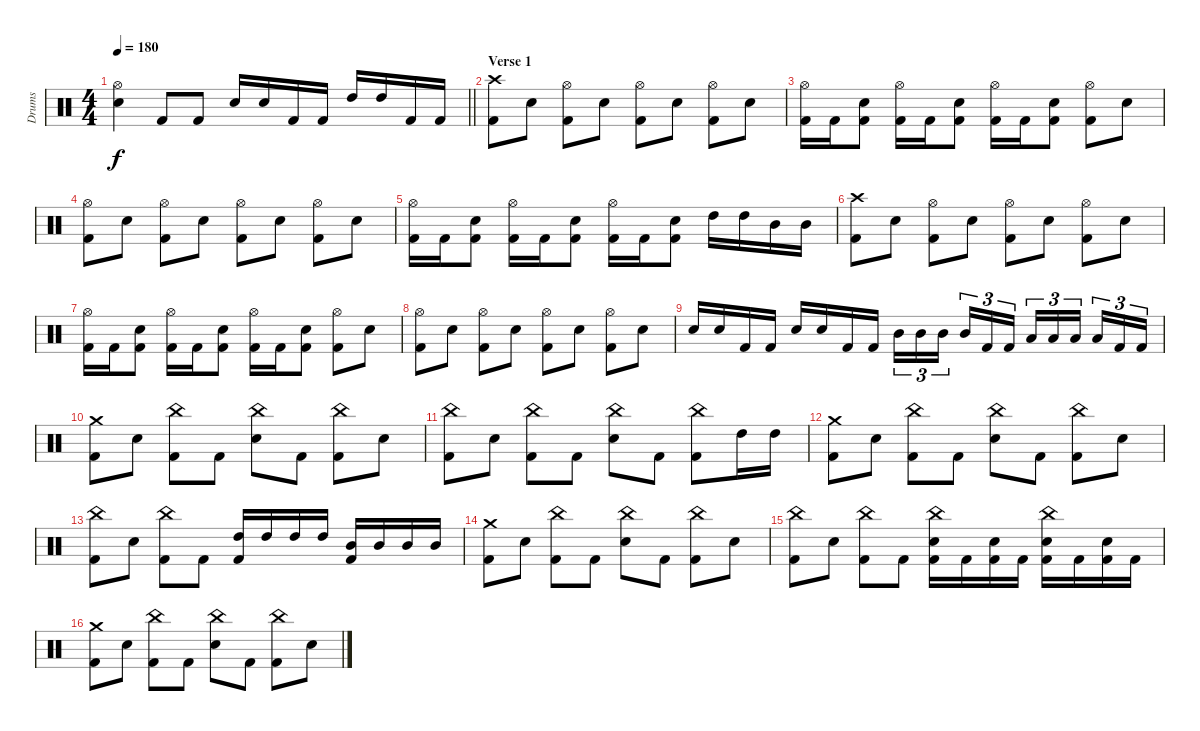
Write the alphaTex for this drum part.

\track ("Drums" "Drums") {instrument percussion}
\staff {score}
\articulation defaults
\ts (4 4)
\tempo 180
\clef neutral
\barLineRight lightlight
\ks c
("Hi-Hat (open)" "Snare (hit) 2").4{dy f} "Kick (hit) 2".8 "Kick (hit) 2".8 "Snare (hit) 2".16 "Snare (hit) 2".16 "Kick (hit) 2".16 "Kick (hit) 2".16 "High Tom (hit)".16 "High Tom (hit)".16 "Kick (hit) 2".16 "Kick (hit) 2".16 |
\section ("" "Verse 1")
("Crash high (hit)" "Kick (hit) 2").8 "Snare (hit) 2".8 ("Hi-Hat (open)" "Kick (hit) 2").8 "Snare (hit) 2".8 ("Hi-Hat (open)" "Kick (hit) 2").8 "Snare (hit) 2".8 ("Hi-Hat (open)" "Kick (hit) 2").8 "Snare (hit) 2".8 |
("Hi-Hat (open)" "Kick (hit) 2").16 "Kick (hit) 2".16 ("Snare (hit) 2" "Kick (hit) 2").8 ("Hi-Hat (open)" "Kick (hit) 2").16 "Kick (hit) 2".16 ("Snare (hit) 2" "Kick (hit) 2").8 ("Hi-Hat (open)" "Kick (hit) 2").16 "Kick (hit) 2".16 ("Snare (hit) 2" "Kick (hit) 2").8 ("Hi-Hat (open)" "Kick (hit) 2").8 "Snare (hit) 2".8 |
("Hi-Hat (open)" "Kick (hit) 2").8 "Snare (hit) 2".8 ("Hi-Hat (open)" "Kick (hit) 2").8 "Snare (hit) 2".8 ("Hi-Hat (open)" "Kick (hit) 2").8 "Snare (hit) 2".8 ("Hi-Hat (open)" "Kick (hit) 2").8 "Snare (hit) 2".8 |
("Hi-Hat (open)" "Kick (hit) 2").16 "Kick (hit) 2".16 ("Snare (hit) 2" "Kick (hit) 2").8 ("Hi-Hat (open)" "Kick (hit) 2").16 "Kick (hit) 2".16 ("Snare (hit) 2" "Kick (hit) 2").8 ("Hi-Hat (open)" "Kick (hit) 2").16 "Kick (hit) 2".16 ("Snare (hit) 2" "Kick (hit) 2").8 "High Tom (hit)".16 "High Tom (hit)".16 "Mid Tom (hit)".16 "Mid Tom (hit)".16 |
("Crash high (hit)" "Kick (hit) 2").8 "Snare (hit) 2".8 ("Hi-Hat (open)" "Kick (hit) 2").8 "Snare (hit) 2".8 ("Hi-Hat (open)" "Kick (hit) 2").8 "Snare (hit) 2".8 ("Hi-Hat (open)" "Kick (hit) 2").8 "Snare (hit) 2".8 |
("Hi-Hat (open)" "Kick (hit) 2").16 "Kick (hit) 2".16 ("Snare (hit) 2" "Kick (hit) 2").8 ("Hi-Hat (open)" "Kick (hit) 2").16 "Kick (hit) 2".16 ("Snare (hit) 2" "Kick (hit) 2").8 ("Hi-Hat (open)" "Kick (hit) 2").16 "Kick (hit) 2".16 ("Snare (hit) 2" "Kick (hit) 2").8 ("Hi-Hat (open)" "Kick (hit) 2").8 "Snare (hit) 2".8 |
("Hi-Hat (open)" "Kick (hit) 2").8 "Snare (hit) 2".8 ("Hi-Hat (open)" "Kick (hit) 2").8 "Snare (hit) 2".8 ("Hi-Hat (open)" "Kick (hit) 2").8 "Snare (hit) 2".8 ("Hi-Hat (open)" "Kick (hit) 2").8 "Snare (hit) 2".8 |
"Snare (hit) 2".16 "Snare (hit) 2".16 "Kick (hit) 2".16 "Kick (hit) 2".16 "Snare (hit) 2".16 "Snare (hit) 2".16 "Kick (hit) 2".16 "Kick (hit) 2".16 "Mid Tom (hit)".16{tu (3 2)} "Mid Tom (hit)".16{tu (3 2)} "Mid Tom (hit)".16{tu (3 2) beam splitsecondary} "Mid Tom (hit)".16{tu (3 2)} "Kick (hit) 2".16{tu (3 2)} "Kick (hit) 2".16{tu (3 2)} "Low Tom (hit)".16{tu (3 2)} "Low Tom (hit)".16{tu (3 2)} "Low Tom (hit)".16{tu (3 2) beam splitsecondary} "Low Tom (hit)".16{tu (3 2)} "Kick (hit) 2".16{tu (3 2)} "Kick (hit) 2".16{tu (3 2)} |
("Crash medium (hit)" "Kick (hit) 2").8 "Snare (hit) 2".8 ("China (hit)" "Kick (hit) 2").8 "Kick (hit) 2".8 ("China (hit)" "Snare (hit) 2").8 "Kick (hit) 2".8 ("China (hit)" "Kick (hit) 2").8 "Snare (hit) 2".8 |
("China (hit)" "Kick (hit) 2").8 "Snare (hit) 2".8 ("China (hit)" "Kick (hit) 2").8 "Kick (hit) 2".8 ("China (hit)" "Snare (hit) 2").8 "Kick (hit) 2".8 ("China (hit)" "Kick (hit) 2").8 "High Tom (hit)".16 "High Tom (hit)".16 |
("Crash medium (hit)" "Kick (hit) 2").8 "Snare (hit) 2".8 ("China (hit)" "Kick (hit) 2").8 "Kick (hit) 2".8 ("China (hit)" "Snare (hit) 2").8 "Kick (hit) 2".8 ("China (hit)" "Kick (hit) 2").8 "Snare (hit) 2".8 |
("China (hit)" "Kick (hit) 2").8 "Snare (hit) 2".8 ("China (hit)" "Kick (hit) 2").8 "Kick (hit) 2".8 ("High Tom (hit)" "Kick (hit) 2").16 "High Tom (hit)".16 "High Tom (hit)".16 "High Tom (hit)".16 ("Mid Tom (hit)" "Kick (hit) 2").16 "Mid Tom (hit)".16 "Mid Tom (hit)".16 "Mid Tom (hit)".16 |
("Crash medium (hit)" "Kick (hit) 2").8 "Snare (hit) 2".8 ("China (hit)" "Kick (hit) 2").8 "Kick (hit) 2".8 ("China (hit)" "Snare (hit) 2").8 "Kick (hit) 2".8 ("China (hit)" "Kick (hit) 2").8 "Snare (hit) 2".8 |
("China (hit)" "Kick (hit) 2").8 "Snare (hit) 2".8 ("China (hit)" "Kick (hit) 2").8 "Kick (hit) 2".8 ("China (hit)" "Snare (hit) 2" "Kick (hit) 2").16 "Kick (hit) 2".16 ("Snare (hit) 2" "Kick (hit) 2").16 "Kick (hit) 2".16 ("China (hit)" "Snare (hit) 2" "Kick (hit) 2").16 "Kick (hit) 2".16 ("Snare (hit) 2" "Kick (hit) 2").16 "Kick (hit) 2".16 |
("Crash medium (hit)" "Kick (hit) 2").8 "Snare (hit) 2".8 ("China (hit)" "Kick (hit) 2").8 "Kick (hit) 2".8 ("China (hit)" "Snare (hit) 2").8 "Kick (hit) 2".8 ("China (hit)" "Kick (hit) 2").8 "Snare (hit) 2".8
